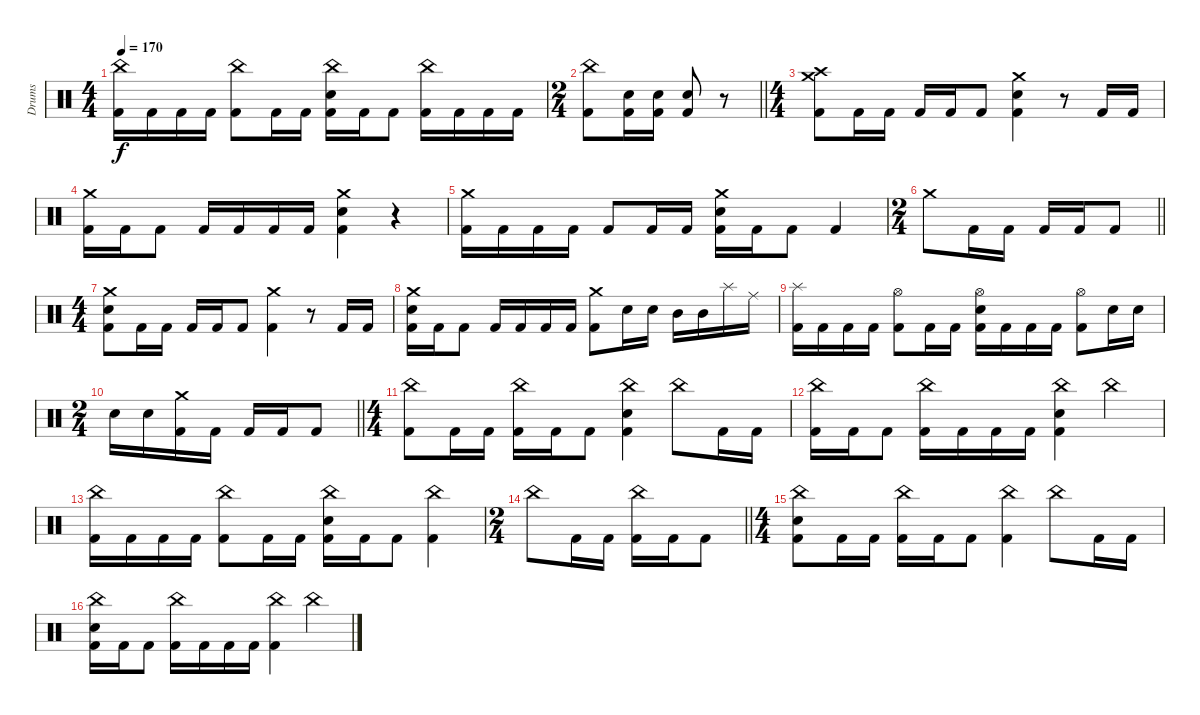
\track ("Drums" "Drums") {instrument percussion}
\staff {score}
\articulation defaults
\ts (4 4)
\tempo 170
\clef neutral
\ks c
("China (hit)" "Kick (hit) 2").16{dy f} "Kick (hit) 2".16 "Kick (hit) 2".16 "Kick (hit) 2".16 ("China (hit)" "Kick (hit) 2").8 "Kick (hit) 2".16 "Kick (hit) 2".16 ("China (hit)" "Electric Snare (hit)" "Kick (hit) 2").16 "Kick (hit) 2".16 "Kick (hit) 2".8 ("China (hit)" "Kick (hit) 2").16 "Kick (hit) 2".16 "Kick (hit) 2".16 "Kick (hit) 2".16 |
\ts (2 4)
\barLineRight lightlight
("China (hit)" "Kick (hit) 2").8 ("Electric Snare (hit)" "Kick (hit) 2").16 ("Electric Snare (hit)" "Kick (hit) 2").16 ("Electric Snare (hit)" "Kick (hit) 2").8 r.8 |
\ts (4 4)
("Crash high (hit)" "Crash medium (hit)" "Kick (hit) 2").8 "Kick (hit) 2".16 "Kick (hit) 2".16 "Kick (hit) 2".16 "Kick (hit) 2".16 "Kick (hit) 2".8 ("Crash medium (hit)" "Electric Snare (hit)" "Kick (hit) 2").4 r.8 "Kick (hit) 2".16 "Kick (hit) 2".16 |
("Crash medium (hit)" "Kick (hit) 2").16 "Kick (hit) 2".16 "Kick (hit) 2".8 "Kick (hit) 2".16 "Kick (hit) 2".16 "Kick (hit) 2".16 "Kick (hit) 2".16 ("Crash medium (hit)" "Electric Snare (hit)" "Kick (hit) 2").4 r.4 |
("Crash medium (hit)" "Kick (hit) 2").16 "Kick (hit) 2".16 "Kick (hit) 2".16 "Kick (hit) 2".16 "Kick (hit) 2".8 "Kick (hit) 2".16 "Kick (hit) 2".16 ("Crash medium (hit)" "Electric Snare (hit)" "Kick (hit) 2").16 "Kick (hit) 2".16 "Kick (hit) 2".8 "Kick (hit) 2".4 |
\ts (2 4)
\barLineRight lightlight "Crash medium (hit)".8 "Kick (hit) 2".16 "Kick (hit) 2".16 "Kick (hit) 2".16 "Kick (hit) 2".16 "Kick (hit) 2".8
|
\ts (4 4)
("Crash medium (hit)" "Electric Snare (hit)" "Kick (hit) 2").8 "Kick (hit) 2".16 "Kick (hit) 2".16 "Kick (hit) 2".16 "Kick (hit) 2".16 "Kick (hit) 2".8 ("Crash medium (hit)" "Kick (hit) 2").4 r.8 "Kick (hit) 2".16 "Kick (hit) 2".16 |
("Crash medium (hit)" "Electric Snare (hit)" "Kick (hit) 2").16 "Kick (hit) 2".16 "Kick (hit) 2".8 "Kick (hit) 2".16 "Kick (hit) 2".16 "Kick (hit) 2".16 "Kick (hit) 2".16 ("Crash medium (hit)" "Kick (hit) 2").8 "Electric Snare (hit)".16 "Electric Snare (hit)".16 "Mid Tom (hit)".16 "Mid Tom (hit)".16 "Splash (hit)".16 "Ride (middle)".16 |
("Splash (hit)" "Kick (hit) 2").16 "Kick (hit) 2".16 "Kick (hit) 2".16 "Kick (hit) 2".16 ("Hi-Hat (open)" "Kick (hit) 2").8 "Kick (hit) 2".16 "Kick (hit) 2".16 ("Hi-Hat (open)" "Electric Snare (hit)" "Kick (hit) 2").16 "Kick (hit) 2".16 "Kick (hit) 2".16 "Kick (hit) 2".16 ("Hi-Hat (open)" "Kick (hit) 2").8 "Electric Snare (hit)".16 "Electric Snare (hit)".16 |
\ts (2 4)
\barLineRight lightlight "Electric Snare (hit)".16 "Electric Snare (hit)".16
("Crash medium (hit)" "Kick (hit) 2").16 "Kick (hit) 2".16 "Kick (hit) 2".16 "Kick (hit) 2".16 "Kick (hit) 2".8 |
\ts (4 4)
("China (hit)" "Kick (hit) 2").8 "Kick (hit) 2".16 "Kick (hit) 2".16 ("China (hit)" "Kick (hit) 2").16 "Kick (hit) 2".16 "Kick (hit) 2".8 ("China (hit)" "Electric Snare (hit)" "Kick (hit) 2").4 "China (hit)".8 "Kick (hit) 2".16 "Kick (hit) 2".16 |
("China (hit)" "Kick (hit) 2").16 "Kick (hit) 2".16 "Kick (hit) 2".8 ("China (hit)" "Kick (hit) 2").16 "Kick (hit) 2".16 "Kick (hit) 2".16 "Kick (hit) 2".16 ("China (hit)" "Electric Snare (hit)" "Kick (hit) 2").4 "China (hit)".4 |
("China (hit)" "Kick (hit) 2").16 "Kick (hit) 2".16 "Kick (hit) 2".16 "Kick (hit) 2".16 ("China (hit)" "Kick (hit) 2").8 "Kick (hit) 2".16 "Kick (hit) 2".16 ("China (hit)" "Electric Snare (hit)" "Kick (hit) 2").16 "Kick (hit) 2".16 "Kick (hit) 2".8 ("China (hit)" "Kick (hit) 2").4 |
\ts (2 4)
\barLineRight lightlight "China (hit)".8 "Kick (hit) 2".16 "Kick (hit) 2".16
("China (hit)" "Kick (hit) 2").16 "Kick (hit) 2".16 "Kick (hit) 2".8 |
\ts (4 4)
("China (hit)" "Electric Snare (hit)" "Kick (hit) 2").8 "Kick (hit) 2".16 "Kick (hit) 2".16 ("China (hit)" "Kick (hit) 2").16 "Kick (hit) 2".16 "Kick (hit) 2".8 ("China (hit)" "Kick (hit) 2").4 "China (hit)".8 "Kick (hit) 2".16 "Kick (hit) 2".16 |
("China (hit)" "Electric Snare (hit)" "Kick (hit) 2").16 "Kick (hit) 2".16 "Kick (hit) 2".8 ("China (hit)" "Kick (hit) 2").16 "Kick (hit) 2".16 "Kick (hit) 2".16 "Kick (hit) 2".16 ("China (hit)" "Kick (hit) 2").4 "China (hit)".4
